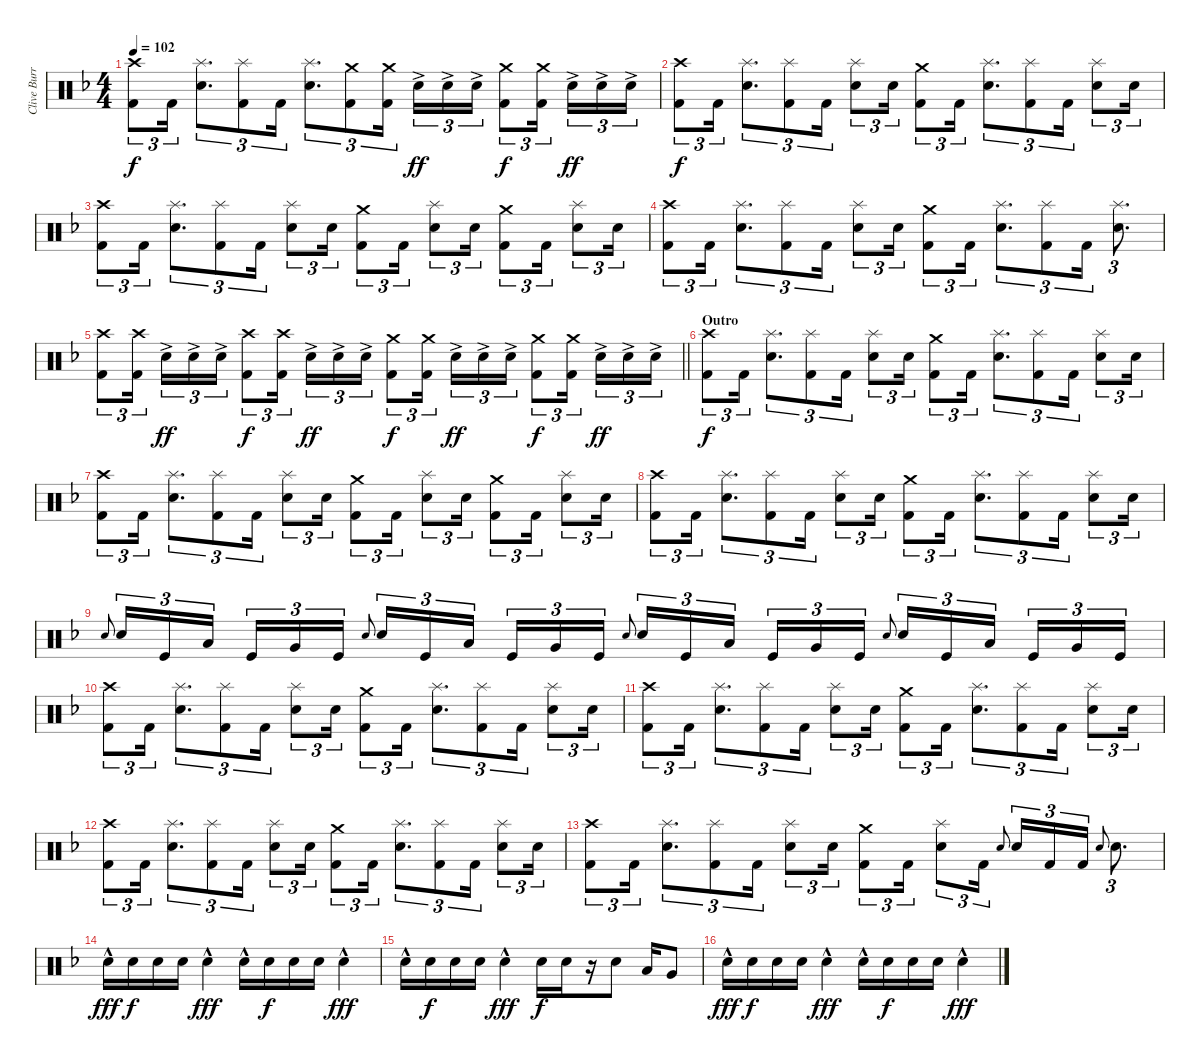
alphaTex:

\track ("Clive Burr" "Clive Burr") {instrument percussion}
\staff {score}
\articulation defaults
\ts (4 4)
\tempo 102
\clef neutral
\ks dminor
("Crash high (hit)" "Kick (hit) 2").8{tu (3 2) dy f} "Kick (hit) 2".16{tu (3 2)} ("Splash (hit)" "Snare (hit) 2").8{d tu (3 2)} ("Splash (hit)" "Kick (hit) 2").8{tu (3 2)} "Kick (hit) 2".16{tu (3 2)} ("Splash (hit)" "Snare (hit) 2").8{d tu (3 2)} ("Crash medium (hit)" "Kick (hit) 2").8{tu (3 2)} ("Crash medium (hit)" "Kick (hit) 2").16{tu (3 2) beam splitsecondary} "Electric Snare (hit)"{ac}.16{tu (3 2) dy ff} "Electric Snare (hit)"{ac}.16{tu (3 2)} "Electric Snare (hit)"{ac}.16{tu (3 2)} ("Crash medium (hit)" "Kick (hit) 2").8{tu (3 2) dy f} ("Crash medium (hit)" "Kick (hit) 2").16{tu (3 2) beam splitsecondary} "Electric Snare (hit)"{ac}.16{tu (3 2) dy ff} "Electric Snare (hit)"{ac}.16{tu (3 2)} "Electric Snare (hit)"{ac}.16{tu (3 2)} |
("Crash high (hit)" "Kick (hit) 2").8{tu (3 2) dy f} "Kick (hit) 2".16{tu (3 2)} ("Splash (hit)" "Snare (hit) 2").8{d tu (3 2)} ("Splash (hit)" "Kick (hit) 2").8{tu (3 2)} "Kick (hit) 2".16{tu (3 2)} ("Splash (hit)" "Snare (hit) 2").8{tu (3 2)} "Snare (hit) 2".16{tu (3 2)} ("Crash medium (hit)" "Kick (hit) 2").8{tu (3 2)} "Kick (hit) 2".16{tu (3 2)} ("Splash (hit)" "Snare (hit) 2").8{d tu (3 2)} ("Splash (hit)" "Kick (hit) 2").8{tu (3 2)} "Kick (hit) 2".16{tu (3 2)} ("Splash (hit)" "Snare (hit) 2").8{tu (3 2)} "Snare (hit) 2".16{tu (3 2)} |
("Crash high (hit)" "Kick (hit) 2").8{tu (3 2)} "Kick (hit) 2".16{tu (3 2)} ("Splash (hit)" "Snare (hit) 2").8{d tu (3 2)} ("Splash (hit)" "Kick (hit) 2").8{tu (3 2)} "Kick (hit) 2".16{tu (3 2)} ("Splash (hit)" "Snare (hit) 2").8{tu (3 2)} "Snare (hit) 2".16{tu (3 2)} ("Crash medium (hit)" "Kick (hit) 2").8{tu (3 2)} "Kick (hit) 2".16{tu (3 2)} ("Splash (hit)" "Snare (hit) 2").8{tu (3 2)} "Snare (hit) 2".16{tu (3 2)} ("Crash medium (hit)" "Kick (hit) 2").8{tu (3 2)} "Kick (hit) 2".16{tu (3 2)} ("Splash (hit)" "Snare (hit) 2").8{tu (3 2)} "Snare (hit) 2".16{tu (3 2)} |
("Crash high (hit)" "Kick (hit) 2").8{tu (3 2)} "Kick (hit) 2".16{tu (3 2)} ("Splash (hit)" "Snare (hit) 2").8{d tu (3 2)} ("Splash (hit)" "Kick (hit) 2").8{tu (3 2)} "Kick (hit) 2".16{tu (3 2)} ("Splash (hit)" "Snare (hit) 2").8{tu (3 2)} "Snare (hit) 2".16{tu (3 2)} ("Crash medium (hit)" "Kick (hit) 2").8{tu (3 2)} "Kick (hit) 2".16{tu (3 2)} ("Splash (hit)" "Snare (hit) 2").8{d tu (3 2)} ("Splash (hit)" "Kick (hit) 2").8{tu (3 2)} "Kick (hit) 2".16{tu (3 2)} ("Splash (hit)" "Snare (hit) 2").8{d tu (3 2)} |
\barLineRight lightlight
("Crash high (hit)" "Kick (hit) 2").8{tu (3 2)} ("Crash high (hit)" "Kick (hit) 2").16{tu (3 2) beam splitsecondary} "Electric Snare (hit)"{ac}.16{tu (3 2) dy ff} "Electric Snare (hit)"{ac}.16{tu (3 2)} "Electric Snare (hit)"{ac}.16{tu (3 2)} ("Crash high (hit)" "Kick (hit) 2").8{tu (3 2) dy f} ("Crash high (hit)" "Kick (hit) 2").16{tu (3 2) beam splitsecondary} "Electric Snare (hit)"{ac}.16{tu (3 2) dy ff} "Electric Snare (hit)"{ac}.16{tu (3 2)} "Electric Snare (hit)"{ac}.16{tu (3 2)} ("Crash medium (hit)" "Kick (hit) 2").8{tu (3 2) dy f} ("Crash medium (hit)" "Kick (hit) 2").16{tu (3 2) beam splitsecondary} "Electric Snare (hit)"{ac}.16{tu (3 2) dy ff} "Electric Snare (hit)"{ac}.16{tu (3 2)} "Electric Snare (hit)"{ac}.16{tu (3 2)} ("Crash medium (hit)" "Kick (hit) 2").8{tu (3 2) dy f} ("Crash medium (hit)" "Kick (hit) 2").16{tu (3 2) beam splitsecondary} "Electric Snare (hit)"{ac}.16{tu (3 2) dy ff} "Electric Snare (hit)"{ac}.16{tu (3 2)} "Electric Snare (hit)"{ac}.16{tu (3 2)} |
\section ("" "Outro")
("Crash high (hit)" "Kick (hit) 2").8{tu (3 2) dy f} "Kick (hit) 2".16{tu (3 2)} ("Splash (hit)" "Snare (hit) 2").8{d tu (3 2)} ("Splash (hit)" "Kick (hit) 2").8{tu (3 2)} "Kick (hit) 2".16{tu (3 2)} ("Splash (hit)" "Snare (hit) 2").8{tu (3 2)} "Snare (hit) 2".16{tu (3 2)} ("Crash medium (hit)" "Kick (hit) 2").8{tu (3 2)} "Kick (hit) 2".16{tu (3 2)} ("Splash (hit)" "Snare (hit) 2").8{d tu (3 2)} ("Splash (hit)" "Kick (hit) 2").8{tu (3 2)} "Kick (hit) 2".16{tu (3 2)} ("Splash (hit)" "Snare (hit) 2").8{tu (3 2)} "Snare (hit) 2".16{tu (3 2)} |
("Crash high (hit)" "Kick (hit) 2").8{tu (3 2)} "Kick (hit) 2".16{tu (3 2)} ("Splash (hit)" "Snare (hit) 2").8{d tu (3 2)} ("Splash (hit)" "Kick (hit) 2").8{tu (3 2)} "Kick (hit) 2".16{tu (3 2)} ("Splash (hit)" "Snare (hit) 2").8{tu (3 2)} "Snare (hit) 2".16{tu (3 2)} ("Crash medium (hit)" "Kick (hit) 2").8{tu (3 2)} "Kick (hit) 2".16{tu (3 2)} ("Splash (hit)" "Snare (hit) 2").8{tu (3 2)} "Snare (hit) 2".16{tu (3 2)} ("Crash medium (hit)" "Kick (hit) 2").8{tu (3 2)} "Kick (hit) 2".16{tu (3 2)} ("Splash (hit)" "Snare (hit) 2").8{tu (3 2)} "Snare (hit) 2".16{tu (3 2)} |
("Crash high (hit)" "Kick (hit) 2").8{tu (3 2)} "Kick (hit) 2".16{tu (3 2)} ("Splash (hit)" "Snare (hit) 2").8{d tu (3 2)} ("Splash (hit)" "Kick (hit) 2").8{tu (3 2)} "Kick (hit) 2".16{tu (3 2)} ("Splash (hit)" "Snare (hit) 2").8{tu (3 2)} "Snare (hit) 2".16{tu (3 2)} ("Crash medium (hit)" "Kick (hit) 2").8{tu (3 2)} "Kick (hit) 2".16{tu (3 2)} ("Splash (hit)" "Snare (hit) 2").8{d tu (3 2)} ("Splash (hit)" "Kick (hit) 2").8{tu (3 2)} "Kick (hit) 2".16{tu (3 2)} ("Splash (hit)" "Snare (hit) 2").8{tu (3 2)} "Snare (hit) 2".16{tu (3 2)} |
"Electric Snare (hit)".8{gr onbeat} "Electric Snare (hit)".16{tu (3 2)} "Kick (hit)".16{tu (3 2)} "Low Tom (hit)".16{tu (3 2) beam splitsecondary} "Kick (hit)".16{tu (3 2)} "Very Low Tom (hit)".16{tu (3 2)} "Kick (hit)".16{tu (3 2)} "Electric Snare (hit)".8{gr onbeat} "Electric Snare (hit)".16{tu (3 2)} "Kick (hit)".16{tu (3 2)} "Low Tom (hit)".16{tu (3 2) beam splitsecondary} "Kick (hit)".16{tu (3 2)} "Very Low Tom (hit)".16{tu (3 2)} "Kick (hit)".16{tu (3 2)} "Electric Snare (hit)".8{gr onbeat} "Electric Snare (hit)".16{tu (3 2)} "Kick (hit)".16{tu (3 2)} "Low Tom (hit)".16{tu (3 2) beam splitsecondary} "Kick (hit)".16{tu (3 2)} "Very Low Tom (hit)".16{tu (3 2)} "Kick (hit)".16{tu (3 2)} "Electric Snare (hit)".8{gr onbeat} "Electric Snare (hit)".16{tu (3 2)} "Kick (hit)".16{tu (3 2)} "Low Tom (hit)".16{tu (3 2) beam splitsecondary} "Kick (hit)".16{tu (3 2)} "Very Low Tom (hit)".16{tu (3 2)} "Kick (hit)".16{tu (3 2)} |
("Crash high (hit)" "Kick (hit) 2").8{tu (3 2)} "Kick (hit) 2".16{tu (3 2)} ("Splash (hit)" "Snare (hit) 2").8{d tu (3 2)} ("Splash (hit)" "Kick (hit) 2").8{tu (3 2)} "Kick (hit) 2".16{tu (3 2)} ("Splash (hit)" "Snare (hit) 2").8{tu (3 2)} "Snare (hit) 2".16{tu (3 2)} ("Crash medium (hit)" "Kick (hit) 2").8{tu (3 2)} "Kick (hit) 2".16{tu (3 2)} ("Splash (hit)" "Snare (hit) 2").8{d tu (3 2)} ("Splash (hit)" "Kick (hit) 2").8{tu (3 2)} "Kick (hit) 2".16{tu (3 2)} ("Splash (hit)" "Snare (hit) 2").8{tu (3 2)} "Snare (hit) 2".16{tu (3 2)} |
("Crash high (hit)" "Kick (hit) 2").8{tu (3 2)} "Kick (hit) 2".16{tu (3 2)} ("Splash (hit)" "Snare (hit) 2").8{d tu (3 2)} ("Splash (hit)" "Kick (hit) 2").8{tu (3 2)} "Kick (hit) 2".16{tu (3 2)} ("Splash (hit)" "Snare (hit) 2").8{tu (3 2)} "Snare (hit) 2".16{tu (3 2)} ("Crash medium (hit)" "Kick (hit) 2").8{tu (3 2)} "Kick (hit) 2".16{tu (3 2)} ("Splash (hit)" "Snare (hit) 2").8{d tu (3 2)} ("Splash (hit)" "Kick (hit) 2").8{tu (3 2)} "Kick (hit) 2".16{tu (3 2)} ("Splash (hit)" "Snare (hit) 2").8{tu (3 2)} "Snare (hit) 2".16{tu (3 2)} |
("Crash high (hit)" "Kick (hit) 2").8{tu (3 2)} "Kick (hit) 2".16{tu (3 2)} ("Splash (hit)" "Snare (hit) 2").8{d tu (3 2)} ("Splash (hit)" "Kick (hit) 2").8{tu (3 2)} "Kick (hit) 2".16{tu (3 2)} ("Splash (hit)" "Snare (hit) 2").8{tu (3 2)} "Snare (hit) 2".16{tu (3 2)} ("Crash medium (hit)" "Kick (hit) 2").8{tu (3 2)} "Kick (hit) 2".16{tu (3 2)} ("Splash (hit)" "Snare (hit) 2").8{d tu (3 2)} ("Splash (hit)" "Kick (hit) 2").8{tu (3 2)} "Kick (hit) 2".16{tu (3 2)} ("Splash (hit)" "Snare (hit) 2").8{tu (3 2)} "Snare (hit) 2".16{tu (3 2)} |
("Crash high (hit)" "Kick (hit) 2").8{tu (3 2)} "Kick (hit) 2".16{tu (3 2)} ("Splash (hit)" "Snare (hit) 2").8{d tu (3 2)} ("Splash (hit)" "Kick (hit) 2").8{tu (3 2)} "Kick (hit) 2".16{tu (3 2)} ("Splash (hit)" "Snare (hit) 2").8{tu (3 2)} "Snare (hit) 2".16{tu (3 2)} ("Crash medium (hit)" "Kick (hit) 2").8{tu (3 2)} "Kick (hit) 2".16{tu (3 2)} ("Splash (hit)" "Snare (hit) 2").8{tu (3 2)} "Kick (hit) 2".16{tu (3 2)} "Snare (hit) 2".8{gr onbeat} "Snare (hit) 2".16{tu (3 2)} "Kick (hit) 2".16{tu (3 2)} "Kick (hit) 2".16{tu (3 2)} "Snare (hit) 2".8{gr onbeat} "Snare (hit) 2".8{d tu (3 2)} |
"Snare (hit) 2"{hac}.16{dy fff} "Snare (hit) 2".16{dy f} "Snare (hit) 2".16 "Snare (hit) 2".16 "Snare (hit) 2"{hac}.4{dy fff} "Snare (hit) 2"{hac}.16 "Snare (hit) 2".16{dy f} "Snare (hit) 2".16 "Snare (hit) 2".16 "Snare (hit) 2"{hac}.4{dy fff} |
"Snare (hit) 2"{hac}.16 "Snare (hit) 2".16{dy f} "Snare (hit) 2".16 "Snare (hit) 2".16 "Snare (hit) 2"{hac}.4{dy fff} "Snare (hit) 2".16{dy f} "Snare (hit) 2".16 r.16 "Snare (hit) 2".8 "Low Tom (hit)".16 "Very Low Tom (hit)".8 |
"Snare (hit) 2"{hac}.16{dy fff} "Snare (hit) 2".16{dy f} "Snare (hit) 2".16 "Snare (hit) 2".16 "Snare (hit) 2"{hac}.4{dy fff} "Snare (hit) 2"{hac}.16 "Snare (hit) 2".16{dy f} "Snare (hit) 2".16 "Snare (hit) 2".16 "Snare (hit) 2"{hac}.4{dy fff}
